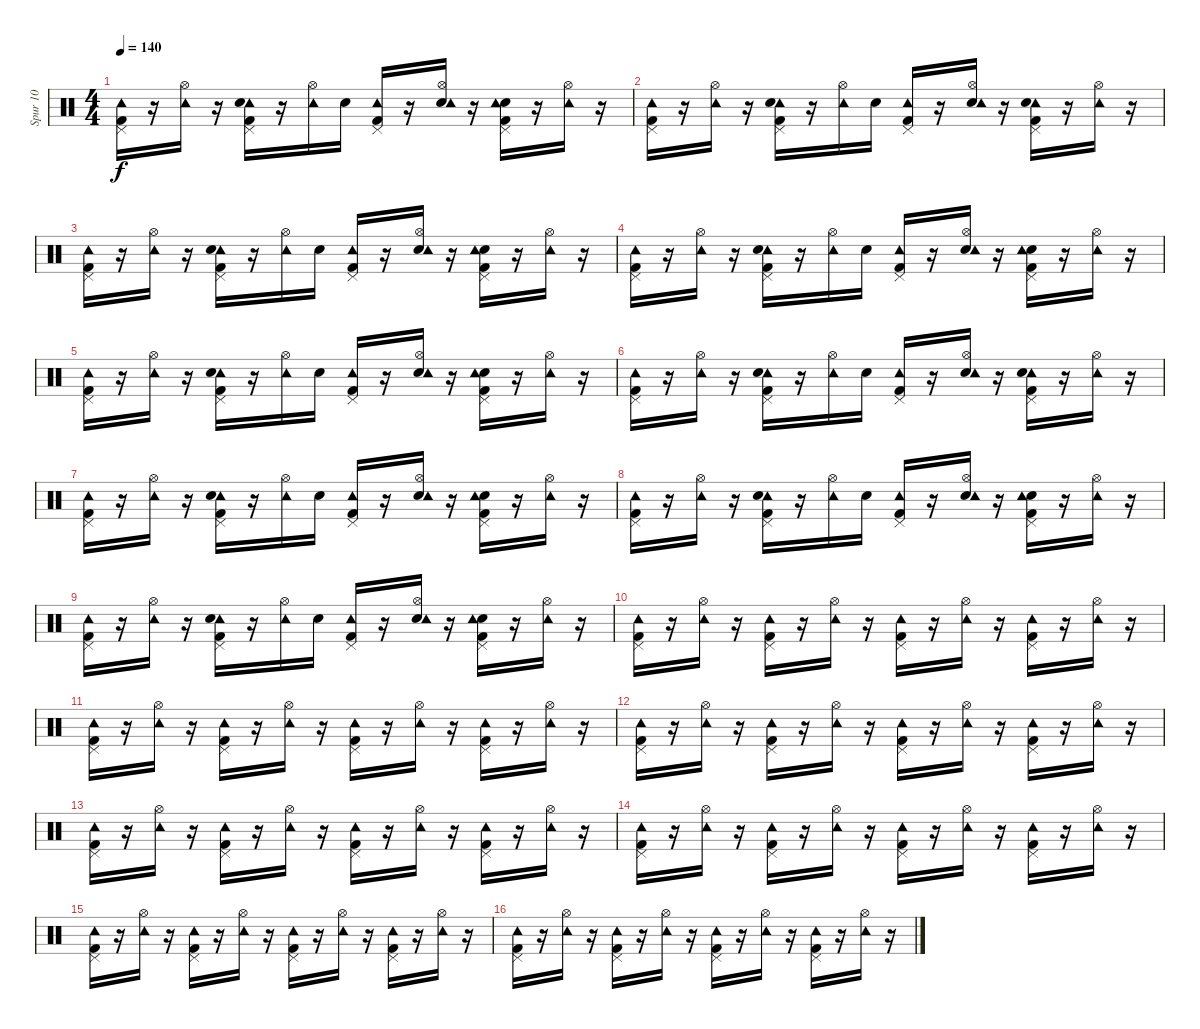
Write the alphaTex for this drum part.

\track ("Spur 10" "Spur 10") {instrument percussion}
\staff {score}
\articulation defaults
\ts (4 4)
\tempo 140
\clef neutral
\ks c
("Tambourine (hit)" "Kick (hit) 2" "Pedal Hi-Hat (hit)").16{dy f} r.16 ("Tambourine (hit)" "Hi-Hat (open)").16 r.16 ("Pedal Hi-Hat (hit)" "Kick (hit) 2" "Tambourine (hit)" "Snare (hit) 2").16 r.16 ("Tambourine (hit)" "Hi-Hat (open)").16 "Snare (hit) 2".16 ("Pedal Hi-Hat (hit)" "Kick (hit) 2" "Tambourine (hit)").16 r.16 ("Snare (hit) 2" "Tambourine (hit)" "Hi-Hat (open)").16 r.16 ("Snare (hit) 2" "Kick (hit) 2" "Pedal Hi-Hat (hit)" "Tambourine (hit)").16 r.16 ("Hi-Hat (open)" "Tambourine (hit)").16 r.16 |
("Tambourine (hit)" "Kick (hit) 2" "Pedal Hi-Hat (hit)").16 r.16 ("Tambourine (hit)" "Hi-Hat (open)").16 r.16 ("Kick (hit) 2" "Tambourine (hit)" "Pedal Hi-Hat (hit)" "Snare (hit) 2").16 r.16 ("Tambourine (hit)" "Hi-Hat (open)").16 "Snare (hit) 2".16 ("Tambourine (hit)" "Kick (hit) 2" "Pedal Hi-Hat (hit)").16 r.16 ("Snare (hit) 2" "Tambourine (hit)" "Hi-Hat (open)").16 r.16 ("Pedal Hi-Hat (hit)" "Kick (hit) 2" "Tambourine (hit)" "Snare (hit) 2").16 r.16 ("Tambourine (hit)" "Hi-Hat (open)").16 r.16 |
("Tambourine (hit)" "Pedal Hi-Hat (hit)" "Kick (hit) 2").16 r.16 ("Tambourine (hit)" "Hi-Hat (open)").16 r.16 ("Kick (hit) 2" "Tambourine (hit)" "Pedal Hi-Hat (hit)" "Snare (hit) 2").16 r.16 ("Hi-Hat (open)" "Tambourine (hit)").16 "Snare (hit) 2".16 ("Pedal Hi-Hat (hit)" "Tambourine (hit)" "Kick (hit) 2").16 r.16 ("Snare (hit) 2" "Hi-Hat (open)" "Tambourine (hit)").16 r.16 ("Snare (hit) 2" "Tambourine (hit)" "Kick (hit) 2" "Pedal Hi-Hat (hit)").16 r.16 ("Tambourine (hit)" "Hi-Hat (open)").16 r.16 |
("Tambourine (hit)" "Kick (hit) 2" "Pedal Hi-Hat (hit)").16 r.16 ("Tambourine (hit)" "Hi-Hat (open)").16 r.16 ("Tambourine (hit)" "Kick (hit) 2" "Pedal Hi-Hat (hit)" "Snare (hit) 2").16 r.16 ("Tambourine (hit)" "Hi-Hat (open)").16 "Snare (hit) 2".16 ("Pedal Hi-Hat (hit)" "Kick (hit) 2" "Tambourine (hit)").16 r.16 ("Snare (hit) 2" "Tambourine (hit)" "Hi-Hat (open)").16 r.16 ("Snare (hit) 2" "Kick (hit) 2" "Pedal Hi-Hat (hit)" "Tambourine (hit)").16 r.16 ("Tambourine (hit)" "Hi-Hat (open)").16 r.16 |
("Tambourine (hit)" "Kick (hit) 2" "Pedal Hi-Hat (hit)").16 r.16 ("Tambourine (hit)" "Hi-Hat (open)").16 r.16 ("Pedal Hi-Hat (hit)" "Kick (hit) 2" "Tambourine (hit)" "Snare (hit) 2").16 r.16 ("Tambourine (hit)" "Hi-Hat (open)").16 "Snare (hit) 2".16 ("Pedal Hi-Hat (hit)" "Kick (hit) 2" "Tambourine (hit)").16 r.16 ("Snare (hit) 2" "Tambourine (hit)" "Hi-Hat (open)").16 r.16 ("Snare (hit) 2" "Kick (hit) 2" "Pedal Hi-Hat (hit)" "Tambourine (hit)").16 r.16 ("Hi-Hat (open)" "Tambourine (hit)").16 r.16 |
("Tambourine (hit)" "Kick (hit) 2" "Pedal Hi-Hat (hit)").16 r.16 ("Tambourine (hit)" "Hi-Hat (open)").16 r.16 ("Kick (hit) 2" "Tambourine (hit)" "Pedal Hi-Hat (hit)" "Snare (hit) 2").16 r.16 ("Tambourine (hit)" "Hi-Hat (open)").16 "Snare (hit) 2".16 ("Tambourine (hit)" "Kick (hit) 2" "Pedal Hi-Hat (hit)").16 r.16 ("Snare (hit) 2" "Tambourine (hit)" "Hi-Hat (open)").16 r.16 ("Pedal Hi-Hat (hit)" "Kick (hit) 2" "Tambourine (hit)" "Snare (hit) 2").16 r.16 ("Tambourine (hit)" "Hi-Hat (open)").16 r.16 |
("Tambourine (hit)" "Pedal Hi-Hat (hit)" "Kick (hit) 2").16 r.16 ("Tambourine (hit)" "Hi-Hat (open)").16 r.16 ("Kick (hit) 2" "Tambourine (hit)" "Pedal Hi-Hat (hit)" "Snare (hit) 2").16 r.16 ("Hi-Hat (open)" "Tambourine (hit)").16 "Snare (hit) 2".16 ("Pedal Hi-Hat (hit)" "Tambourine (hit)" "Kick (hit) 2").16 r.16 ("Snare (hit) 2" "Hi-Hat (open)" "Tambourine (hit)").16 r.16 ("Snare (hit) 2" "Tambourine (hit)" "Kick (hit) 2" "Pedal Hi-Hat (hit)").16 r.16 ("Tambourine (hit)" "Hi-Hat (open)").16 r.16 |
("Tambourine (hit)" "Kick (hit) 2" "Pedal Hi-Hat (hit)").16 r.16 ("Tambourine (hit)" "Hi-Hat (open)").16 r.16 ("Tambourine (hit)" "Kick (hit) 2" "Pedal Hi-Hat (hit)" "Snare (hit) 2").16 r.16 ("Tambourine (hit)" "Hi-Hat (open)").16 "Snare (hit) 2".16 ("Pedal Hi-Hat (hit)" "Kick (hit) 2" "Tambourine (hit)").16 r.16 ("Snare (hit) 2" "Tambourine (hit)" "Hi-Hat (open)").16 r.16 ("Snare (hit) 2" "Kick (hit) 2" "Pedal Hi-Hat (hit)" "Tambourine (hit)").16 r.16 ("Tambourine (hit)" "Hi-Hat (open)").16 r.16 |
("Tambourine (hit)" "Kick (hit) 2" "Pedal Hi-Hat (hit)").16 r.16 ("Tambourine (hit)" "Hi-Hat (open)").16 r.16 ("Pedal Hi-Hat (hit)" "Kick (hit) 2" "Tambourine (hit)" "Snare (hit) 2").16 r.16 ("Tambourine (hit)" "Hi-Hat (open)").16 "Snare (hit) 2".16 ("Pedal Hi-Hat (hit)" "Kick (hit) 2" "Tambourine (hit)").16 r.16 ("Snare (hit) 2" "Tambourine (hit)" "Hi-Hat (open)").16 r.16 ("Snare (hit) 2" "Kick (hit) 2" "Pedal Hi-Hat (hit)" "Tambourine (hit)").16 r.16 ("Hi-Hat (open)" "Tambourine (hit)").16 r.16 |
("Tambourine (hit)" "Kick (hit) 2" "Pedal Hi-Hat (hit)").16 r.16 ("Tambourine (hit)" "Hi-Hat (open)").16 r.16 ("Kick (hit) 2" "Tambourine (hit)" "Pedal Hi-Hat (hit)").16 r.16 ("Tambourine (hit)" "Hi-Hat (open)").16 r.16 ("Tambourine (hit)" "Kick (hit) 2" "Pedal Hi-Hat (hit)").16 r.16 ("Tambourine (hit)" "Hi-Hat (open)").16 r.16 ("Pedal Hi-Hat (hit)" "Kick (hit) 2" "Tambourine (hit)").16 r.16 ("Tambourine (hit)" "Hi-Hat (open)").16 r.16 |
("Tambourine (hit)" "Pedal Hi-Hat (hit)" "Kick (hit) 2").16 r.16 ("Tambourine (hit)" "Hi-Hat (open)").16 r.16 ("Kick (hit) 2" "Tambourine (hit)" "Pedal Hi-Hat (hit)").16 r.16 ("Hi-Hat (open)" "Tambourine (hit)").16 r.16 ("Pedal Hi-Hat (hit)" "Tambourine (hit)" "Kick (hit) 2").16 r.16 ("Hi-Hat (open)" "Tambourine (hit)").16 r.16 ("Tambourine (hit)" "Kick (hit) 2" "Pedal Hi-Hat (hit)").16 r.16 ("Tambourine (hit)" "Hi-Hat (open)").16 r.16 |
("Tambourine (hit)" "Kick (hit) 2" "Pedal Hi-Hat (hit)").16 r.16 ("Tambourine (hit)" "Hi-Hat (open)").16 r.16 ("Tambourine (hit)" "Kick (hit) 2" "Pedal Hi-Hat (hit)").16 r.16 ("Tambourine (hit)" "Hi-Hat (open)").16 r.16 ("Pedal Hi-Hat (hit)" "Kick (hit) 2" "Tambourine (hit)").16 r.16 ("Tambourine (hit)" "Hi-Hat (open)").16 r.16 ("Kick (hit) 2" "Pedal Hi-Hat (hit)" "Tambourine (hit)").16 r.16 ("Tambourine (hit)" "Hi-Hat (open)").16 r.16 |
("Tambourine (hit)" "Kick (hit) 2" "Pedal Hi-Hat (hit)").16 r.16 ("Tambourine (hit)" "Hi-Hat (open)").16 r.16 ("Pedal Hi-Hat (hit)" "Kick (hit) 2" "Tambourine (hit)").16 r.16 ("Tambourine (hit)" "Hi-Hat (open)").16 r.16 ("Pedal Hi-Hat (hit)" "Kick (hit) 2" "Tambourine (hit)").16 r.16 ("Tambourine (hit)" "Hi-Hat (open)").16 r.16 ("Kick (hit) 2" "Pedal Hi-Hat (hit)" "Tambourine (hit)").16 r.16 ("Hi-Hat (open)" "Tambourine (hit)").16 r.16 |
("Tambourine (hit)" "Kick (hit) 2" "Pedal Hi-Hat (hit)").16 r.16 ("Tambourine (hit)" "Hi-Hat (open)").16 r.16 ("Kick (hit) 2" "Tambourine (hit)" "Pedal Hi-Hat (hit)").16 r.16 ("Tambourine (hit)" "Hi-Hat (open)").16 r.16 ("Tambourine (hit)" "Kick (hit) 2" "Pedal Hi-Hat (hit)").16 r.16 ("Tambourine (hit)" "Hi-Hat (open)").16 r.16 ("Pedal Hi-Hat (hit)" "Kick (hit) 2" "Tambourine (hit)").16 r.16 ("Tambourine (hit)" "Hi-Hat (open)").16 r.16 |
("Tambourine (hit)" "Pedal Hi-Hat (hit)" "Kick (hit) 2").16 r.16 ("Tambourine (hit)" "Hi-Hat (open)").16 r.16 ("Kick (hit) 2" "Tambourine (hit)" "Pedal Hi-Hat (hit)").16 r.16 ("Hi-Hat (open)" "Tambourine (hit)").16 r.16 ("Pedal Hi-Hat (hit)" "Tambourine (hit)" "Kick (hit) 2").16 r.16 ("Hi-Hat (open)" "Tambourine (hit)").16 r.16 ("Tambourine (hit)" "Kick (hit) 2" "Pedal Hi-Hat (hit)").16 r.16 ("Tambourine (hit)" "Hi-Hat (open)").16 r.16 |
("Tambourine (hit)" "Kick (hit) 2" "Pedal Hi-Hat (hit)").16 r.16 ("Tambourine (hit)" "Hi-Hat (open)").16 r.16 ("Tambourine (hit)" "Kick (hit) 2" "Pedal Hi-Hat (hit)").16 r.16 ("Tambourine (hit)" "Hi-Hat (open)").16 r.16 ("Pedal Hi-Hat (hit)" "Kick (hit) 2" "Tambourine (hit)").16 r.16 ("Tambourine (hit)" "Hi-Hat (open)").16 r.16 ("Kick (hit) 2" "Pedal Hi-Hat (hit)" "Tambourine (hit)").16 r.16 ("Tambourine (hit)" "Hi-Hat (open)").16 r.16
